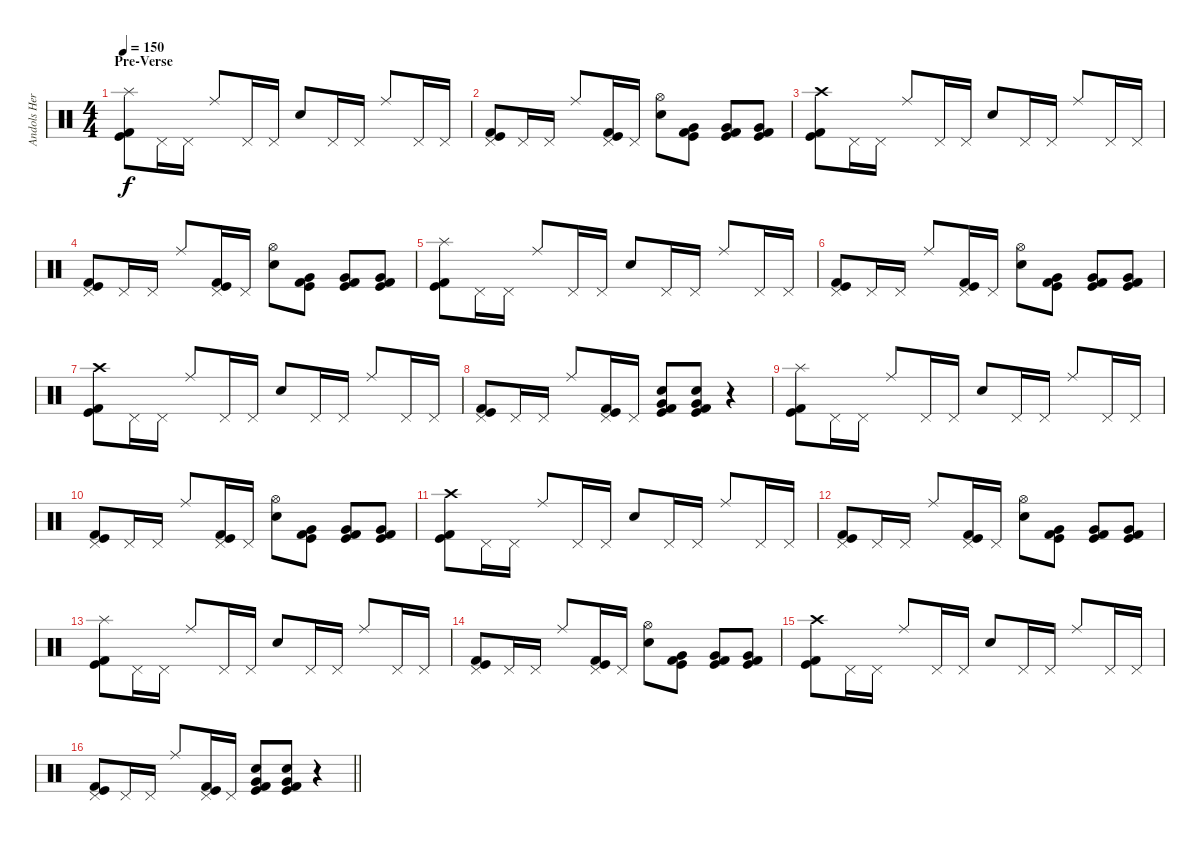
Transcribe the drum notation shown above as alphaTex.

\track ("Andols Herrick" "Andols Her") {instrument percussion}
\staff {score}
\articulation defaults
\ts (4 4)
\section ("" "Pre-Verse")
\tempo 150
\clef neutral
\ks c
("Splash (hit)" "Kick (hit)" "Kick (hit) 2").8{dy f} "Pedal Hi-Hat (hit)".16 "Pedal Hi-Hat (hit)".16 "Ride (middle)".8 "Pedal Hi-Hat (hit)".16 "Pedal Hi-Hat (hit)".16 "Electric Snare (hit)".8 "Pedal Hi-Hat (hit)".16 "Pedal Hi-Hat (hit)".16 "Ride (middle)".8 "Pedal Hi-Hat (hit)".16 "Pedal Hi-Hat (hit)".16 |
("Pedal Hi-Hat (hit)" "Kick (hit)" "Kick (hit) 2").8 "Pedal Hi-Hat (hit)".16 "Pedal Hi-Hat (hit)".16 "Ride (middle)".8 ("Pedal Hi-Hat (hit)" "Kick (hit)" "Kick (hit) 2").16 "Pedal Hi-Hat (hit)".16 ("Hi-Hat (open)" "Electric Snare (hit)").8 ("Very Low Tom (hit)" "Kick (hit)" "Kick (hit) 2").8 ("Very Low Tom (hit)" "Kick (hit)" "Kick (hit) 2").8 ("Very Low Tom (hit)" "Kick (hit)" "Kick (hit) 2").8 |
("Crash high (hit)" "Kick (hit)" "Kick (hit) 2").8 "Pedal Hi-Hat (hit)".16 "Pedal Hi-Hat (hit)".16 "Ride (middle)".8 "Pedal Hi-Hat (hit)".16 "Pedal Hi-Hat (hit)".16 "Electric Snare (hit)".8 "Pedal Hi-Hat (hit)".16 "Pedal Hi-Hat (hit)".16 "Ride (middle)".8 "Pedal Hi-Hat (hit)".16 "Pedal Hi-Hat (hit)".16 |
("Pedal Hi-Hat (hit)" "Kick (hit)" "Kick (hit) 2").8 "Pedal Hi-Hat (hit)".16 "Pedal Hi-Hat (hit)".16 "Ride (middle)".8 ("Pedal Hi-Hat (hit)" "Kick (hit)" "Kick (hit) 2").16 "Pedal Hi-Hat (hit)".16 ("Hi-Hat (open)" "Electric Snare (hit)").8 ("Very Low Tom (hit)" "Kick (hit)" "Kick (hit) 2").8 ("Very Low Tom (hit)" "Kick (hit)" "Kick (hit) 2").8 ("Very Low Tom (hit)" "Kick (hit)" "Kick (hit) 2").8 |
("Splash (hit)" "Kick (hit)" "Kick (hit) 2").8 "Pedal Hi-Hat (hit)".16 "Pedal Hi-Hat (hit)".16 "Ride (middle)".8 "Pedal Hi-Hat (hit)".16 "Pedal Hi-Hat (hit)".16 "Electric Snare (hit)".8 "Pedal Hi-Hat (hit)".16 "Pedal Hi-Hat (hit)".16 "Ride (middle)".8 "Pedal Hi-Hat (hit)".16 "Pedal Hi-Hat (hit)".16 |
("Pedal Hi-Hat (hit)" "Kick (hit)" "Kick (hit) 2").8 "Pedal Hi-Hat (hit)".16 "Pedal Hi-Hat (hit)".16 "Ride (middle)".8 ("Pedal Hi-Hat (hit)" "Kick (hit)" "Kick (hit) 2").16 "Pedal Hi-Hat (hit)".16 ("Hi-Hat (open)" "Electric Snare (hit)").8 ("Very Low Tom (hit)" "Kick (hit)" "Kick (hit) 2").8 ("Very Low Tom (hit)" "Kick (hit)" "Kick (hit) 2").8 ("Very Low Tom (hit)" "Kick (hit)" "Kick (hit) 2").8 |
("Crash high (hit)" "Kick (hit)" "Kick (hit) 2").8 "Pedal Hi-Hat (hit)".16 "Pedal Hi-Hat (hit)".16 "Ride (middle)".8 "Pedal Hi-Hat (hit)".16 "Pedal Hi-Hat (hit)".16 "Electric Snare (hit)".8 "Pedal Hi-Hat (hit)".16 "Pedal Hi-Hat (hit)".16 "Ride (middle)".8 "Pedal Hi-Hat (hit)".16 "Pedal Hi-Hat (hit)".16 |
("Pedal Hi-Hat (hit)" "Kick (hit)" "Kick (hit) 2").8 "Pedal Hi-Hat (hit)".16 "Pedal Hi-Hat (hit)".16 "Ride (middle)".8 ("Pedal Hi-Hat (hit)" "Kick (hit)" "Kick (hit) 2").16 "Pedal Hi-Hat (hit)".16 ("Electric Snare (hit)" "Very Low Tom (hit)" "Kick (hit)" "Kick (hit) 2").8 ("Electric Snare (hit)" "Very Low Tom (hit)" "Kick (hit)" "Kick (hit) 2").8 r.4 |
("Splash (hit)" "Kick (hit)" "Kick (hit) 2").8 "Pedal Hi-Hat (hit)".16 "Pedal Hi-Hat (hit)".16 "Ride (middle)".8 "Pedal Hi-Hat (hit)".16 "Pedal Hi-Hat (hit)".16 "Electric Snare (hit)".8 "Pedal Hi-Hat (hit)".16 "Pedal Hi-Hat (hit)".16 "Ride (middle)".8 "Pedal Hi-Hat (hit)".16 "Pedal Hi-Hat (hit)".16 |
("Pedal Hi-Hat (hit)" "Kick (hit)" "Kick (hit) 2").8 "Pedal Hi-Hat (hit)".16 "Pedal Hi-Hat (hit)".16 "Ride (middle)".8 ("Pedal Hi-Hat (hit)" "Kick (hit)" "Kick (hit) 2").16 "Pedal Hi-Hat (hit)".16 ("Hi-Hat (open)" "Electric Snare (hit)").8 ("Very Low Tom (hit)" "Kick (hit)" "Kick (hit) 2").8 ("Very Low Tom (hit)" "Kick (hit)" "Kick (hit) 2").8 ("Very Low Tom (hit)" "Kick (hit)" "Kick (hit) 2").8 |
("Crash high (hit)" "Kick (hit)" "Kick (hit) 2").8 "Pedal Hi-Hat (hit)".16 "Pedal Hi-Hat (hit)".16 "Ride (middle)".8 "Pedal Hi-Hat (hit)".16 "Pedal Hi-Hat (hit)".16 "Electric Snare (hit)".8 "Pedal Hi-Hat (hit)".16 "Pedal Hi-Hat (hit)".16 "Ride (middle)".8 "Pedal Hi-Hat (hit)".16 "Pedal Hi-Hat (hit)".16 |
("Pedal Hi-Hat (hit)" "Kick (hit)" "Kick (hit) 2").8 "Pedal Hi-Hat (hit)".16 "Pedal Hi-Hat (hit)".16 "Ride (middle)".8 ("Pedal Hi-Hat (hit)" "Kick (hit)" "Kick (hit) 2").16 "Pedal Hi-Hat (hit)".16 ("Hi-Hat (open)" "Electric Snare (hit)").8 ("Very Low Tom (hit)" "Kick (hit)" "Kick (hit) 2").8 ("Very Low Tom (hit)" "Kick (hit)" "Kick (hit) 2").8 ("Very Low Tom (hit)" "Kick (hit)" "Kick (hit) 2").8 |
("Splash (hit)" "Kick (hit)" "Kick (hit) 2").8 "Pedal Hi-Hat (hit)".16 "Pedal Hi-Hat (hit)".16 "Ride (middle)".8 "Pedal Hi-Hat (hit)".16 "Pedal Hi-Hat (hit)".16 "Electric Snare (hit)".8 "Pedal Hi-Hat (hit)".16 "Pedal Hi-Hat (hit)".16 "Ride (middle)".8 "Pedal Hi-Hat (hit)".16 "Pedal Hi-Hat (hit)".16 |
("Pedal Hi-Hat (hit)" "Kick (hit)" "Kick (hit) 2").8 "Pedal Hi-Hat (hit)".16 "Pedal Hi-Hat (hit)".16 "Ride (middle)".8 ("Pedal Hi-Hat (hit)" "Kick (hit)" "Kick (hit) 2").16 "Pedal Hi-Hat (hit)".16 ("Hi-Hat (open)" "Electric Snare (hit)").8 ("Very Low Tom (hit)" "Kick (hit)" "Kick (hit) 2").8 ("Very Low Tom (hit)" "Kick (hit)" "Kick (hit) 2").8 ("Very Low Tom (hit)" "Kick (hit)" "Kick (hit) 2").8 |
("Crash high (hit)" "Kick (hit)" "Kick (hit) 2").8 "Pedal Hi-Hat (hit)".16 "Pedal Hi-Hat (hit)".16 "Ride (middle)".8 "Pedal Hi-Hat (hit)".16 "Pedal Hi-Hat (hit)".16 "Electric Snare (hit)".8 "Pedal Hi-Hat (hit)".16 "Pedal Hi-Hat (hit)".16 "Ride (middle)".8 "Pedal Hi-Hat (hit)".16 "Pedal Hi-Hat (hit)".16 |
\barLineRight lightlight
("Pedal Hi-Hat (hit)" "Kick (hit)" "Kick (hit) 2").8 "Pedal Hi-Hat (hit)".16 "Pedal Hi-Hat (hit)".16 "Ride (middle)".8 ("Pedal Hi-Hat (hit)" "Kick (hit)" "Kick (hit) 2").16 "Pedal Hi-Hat (hit)".16 ("Electric Snare (hit)" "Very Low Tom (hit)" "Kick (hit)" "Kick (hit) 2").8 ("Electric Snare (hit)" "Very Low Tom (hit)" "Kick (hit)" "Kick (hit) 2").8 r.4
